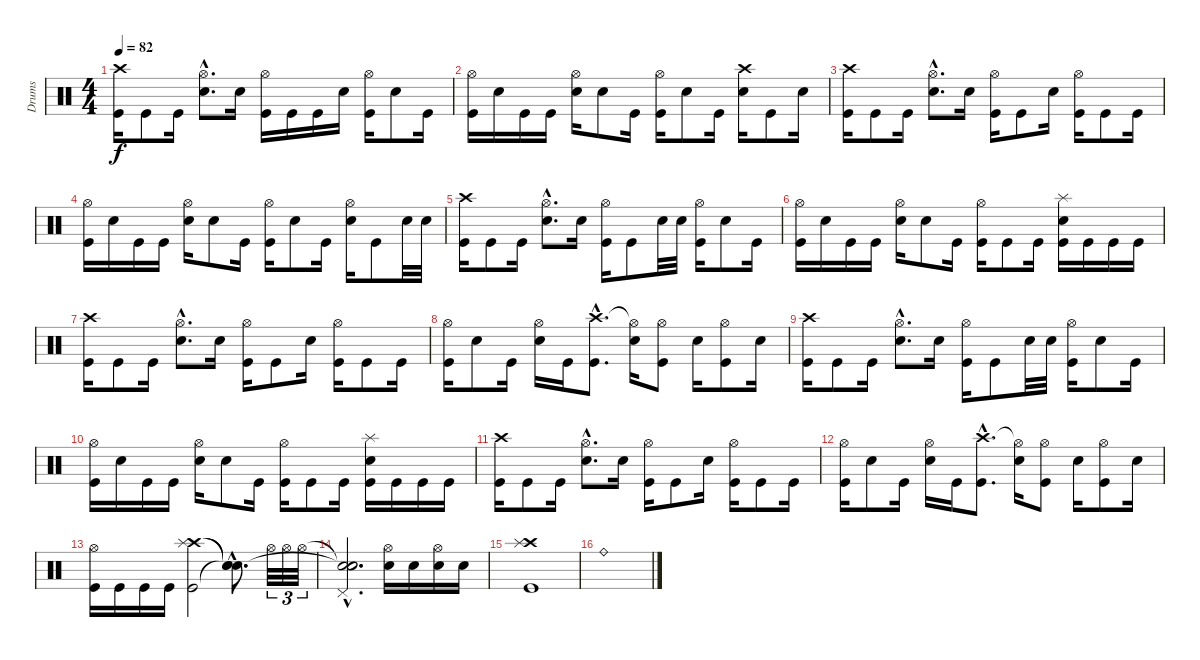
\track ("Drums" "Drums") {instrument percussion}
\staff {score}
\articulation defaults
\ts (4 4)
\tempo 82
\clef neutral
\ks c
("Crash high (hit)" "Kick (hit)").16{dy f} "Kick (hit)".8 "Kick (hit)".16 ("Hi-Hat (open)"{hac} "Electric Snare (hit)"{hac}).8{d} "Electric Snare (hit)".16 ("Hi-Hat (open)" "Kick (hit)").16 "Kick (hit)".16 "Kick (hit)".16 "Electric Snare (hit)".16 ("Hi-Hat (open)" "Kick (hit)").16 "Electric Snare (hit)".8 "Kick (hit)".16 |
("Hi-Hat (open)" "Kick (hit)").16 "Electric Snare (hit)".16 "Kick (hit)".16 "Kick (hit)".16 ("Hi-Hat (open)" "Electric Snare (hit)").16 "Electric Snare (hit)".8 "Kick (hit)".16 ("Hi-Hat (open)" "Kick (hit)").16 "Electric Snare (hit)".8 "Kick (hit)".16 ("Crash high (hit)" "Electric Snare (hit)").16 "Kick (hit)".8 "Electric Snare (hit)".16 |
("Crash high (hit)" "Kick (hit)").16 "Kick (hit)".8 "Kick (hit)".16 ("Hi-Hat (open)"{hac} "Electric Snare (hit)"{hac}).8{d} "Electric Snare (hit)".16 ("Hi-Hat (open)" "Kick (hit)").16 "Kick (hit)".8 "Electric Snare (hit)".16 ("Hi-Hat (open)" "Kick (hit)").16 "Kick (hit)".8 "Kick (hit)".16 |
("Hi-Hat (open)" "Kick (hit)").16 "Electric Snare (hit)".16 "Kick (hit)".16 "Kick (hit)".16 ("Hi-Hat (open)" "Electric Snare (hit)").16 "Electric Snare (hit)".8 "Kick (hit)".16 ("Hi-Hat (open)" "Kick (hit)").16 "Electric Snare (hit)".8 "Kick (hit)".16 ("Hi-Hat (open)" "Electric Snare (hit)").16 "Kick (hit)".8 "Electric Snare (hit)".32 "Electric Snare (hit)".32 |
("Crash high (hit)" "Kick (hit)").16 "Kick (hit)".8 "Kick (hit)".16 ("Hi-Hat (open)"{hac} "Electric Snare (hit)"{hac}).8{d} "Electric Snare (hit)".16 ("Hi-Hat (open)" "Kick (hit)").16 "Kick (hit)".8 "Electric Snare (hit)".32 "Electric Snare (hit)".32 ("Hi-Hat (open)" "Kick (hit)").16 "Electric Snare (hit)".8 "Kick (hit)".16 |
("Hi-Hat (open)" "Kick (hit)").16 "Electric Snare (hit)".16 "Kick (hit)".16 "Kick (hit)".16 ("Hi-Hat (open)" "Electric Snare (hit)").16 "Electric Snare (hit)".8 "Kick (hit)".16 ("Hi-Hat (open)" "Kick (hit)").16 "Kick (hit)".8 "Kick (hit)".16 ("Splash (hit)" "Electric Snare (hit)" "Kick (hit)").16 "Kick (hit)".16 "Kick (hit)".16 "Kick (hit)".16 |
("Crash high (hit)" "Kick (hit)").16 "Kick (hit)".8 "Kick (hit)".16 ("Hi-Hat (open)"{hac} "Electric Snare (hit)"{hac}).8{d} "Electric Snare (hit)".16 ("Hi-Hat (open)" "Kick (hit)").16 "Kick (hit)".8 "Electric Snare (hit)".16 ("Hi-Hat (open)" "Kick (hit)").16 "Kick (hit)".8 "Kick (hit)".16 |
("Hi-Hat (open)" "Kick (hit)").16 "Electric Snare (hit)".8 "Kick (hit)".16 ("Hi-Hat (open)" "Electric Snare (hit)").16 "Kick (hit)".16 ("Crash high (hit)"{hac} "Kick (hit)"{hac}).8{d} ("Hi-Hat (open)"{t} "Electric Snare (hit)").16 ("Hi-Hat (open)" "Kick (hit)").8 "Electric Snare (hit)".16 ("Hi-Hat (open)" "Kick (hit)").8 "Electric Snare (hit)".16 |
("Crash high (hit)" "Kick (hit)").16 "Kick (hit)".8 "Kick (hit)".16 ("Hi-Hat (open)"{hac} "Electric Snare (hit)"{hac}).8{d} "Electric Snare (hit)".16 ("Hi-Hat (open)" "Kick (hit)").16 "Kick (hit)".8 "Electric Snare (hit)".32 "Electric Snare (hit)".32 ("Hi-Hat (open)" "Kick (hit)").16 "Electric Snare (hit)".8 "Kick (hit)".16 |
("Hi-Hat (open)" "Kick (hit)").16 "Electric Snare (hit)".16 "Kick (hit)".16 "Kick (hit)".16 ("Hi-Hat (open)" "Electric Snare (hit)").16 "Electric Snare (hit)".8 "Kick (hit)".16 ("Hi-Hat (open)" "Kick (hit)").16 "Kick (hit)".8 "Kick (hit)".16 ("Splash (hit)" "Electric Snare (hit)" "Kick (hit)").16 "Kick (hit)".16 "Kick (hit)".16 "Kick (hit)".16 |
("Crash high (hit)" "Kick (hit)").16 "Kick (hit)".8 "Kick (hit)".16 ("Hi-Hat (open)"{hac} "Electric Snare (hit)"{hac}).8{d} "Electric Snare (hit)".16 ("Hi-Hat (open)" "Kick (hit)").16 "Kick (hit)".8 "Electric Snare (hit)".16 ("Hi-Hat (open)" "Kick (hit)").16 "Kick (hit)".8 "Kick (hit)".16 |
("Hi-Hat (open)" "Kick (hit)").16 "Electric Snare (hit)".8 "Kick (hit)".16 ("Hi-Hat (open)" "Electric Snare (hit)").16 "Kick (hit)".16 ("Crash high (hit)"{hac} "Kick (hit)"{hac}).8{d} ("Hi-Hat (open)"{t} "Electric Snare (hit)").16 ("Hi-Hat (open)" "Kick (hit)").8 "Electric Snare (hit)".16 ("Hi-Hat (open)" "Kick (hit)").8 "Electric Snare (hit)".16 |
("Hi-Hat (open)" "Kick (hit)").16 "Kick (hit)".16 "Kick (hit)".16 "Kick (hit)".16 ("Crash high (hit)" "Splash (hit)" "Kick (hit)").2 ("Snare (hit)"{hac t} "Snare (hit)"{hac t} "Snare (hit)"{hac t}).8{d} "Hi-Hat (open)".32{tu (3 2)} "Hi-Hat (open)".32{tu (3 2)} "Hi-Hat (open)".32{tu (3 2)} |
("Snare (hit)"{hac t} "Snare (hit)"{hac t} "Pedal Hi-Hat (hit)"{hac} "Snare (hit)"{hac}).2{d} ("Hi-Hat (open)" "Electric Snare (hit)").16 "Electric Snare (hit)".16 ("Hi-Hat (open)" "Electric Snare (hit)").16 "Electric Snare (hit)".16 |
("Crash high (hit)" "Splash (hit)" "Kick (hit)").1 |
"Ride (bell)".1
